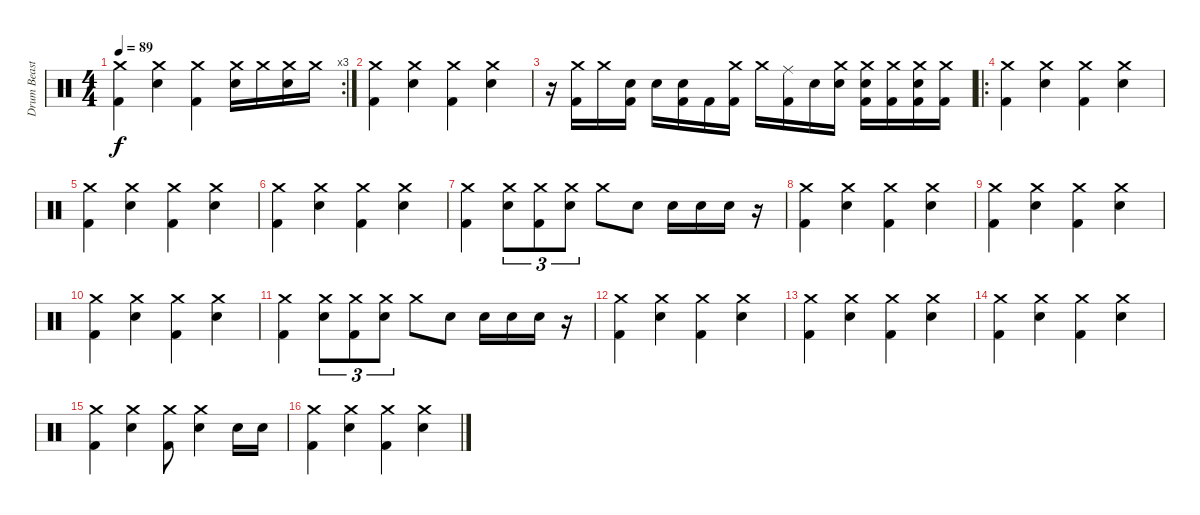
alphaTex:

\track ("Drum Beast Lars" "Drum Beast") {instrument percussion}
\staff {score}
\articulation defaults
\rc 3
\ts (4 4)
\tempo 89
\clef neutral
\ks c
("Crash medium (hit)" "Kick (hit) 2").4{dy f} ("Crash medium (hit)" "Electric Snare (hit)").4 ("Crash medium (hit)" "Kick (hit) 2").4 ("Crash medium (hit)" "Electric Snare (hit)").16 "Crash medium (hit)".16 ("Crash medium (hit)" "Electric Snare (hit)").16 "Crash medium (hit)".16 |
("Crash medium (hit)" "Kick (hit) 2").4 ("Crash medium (hit)" "Electric Snare (hit)").4 ("Crash medium (hit)" "Kick (hit) 2").4 ("Crash medium (hit)" "Electric Snare (hit)").4 |
r.16 ("Crash medium (hit)" "Kick (hit) 2").16 "Crash medium (hit)".16 ("Electric Snare (hit)" "Kick (hit) 2").16 "Electric Snare (hit)".16 ("Electric Snare (hit)" "Kick (hit) 2").16 "Kick (hit) 2".16 ("Crash medium (hit)" "Kick (hit) 2").16 "Crash medium (hit)".16 ("Ride (middle)" "Kick (hit) 2").16 "Electric Snare (hit)".16 ("Electric Snare (hit)" "Crash medium (hit)").16 ("Electric Snare (hit)" "Crash medium (hit)" "Kick (hit) 2").16 ("Crash medium (hit)" "Kick (hit) 2").16 ("Electric Snare (hit)" "Crash medium (hit)" "Kick (hit) 2").16 ("Crash medium (hit)" "Kick (hit) 2").16 |
\ro
("Crash medium (hit)" "Kick (hit) 2").4 ("Crash medium (hit)" "Electric Snare (hit)").4 ("Crash medium (hit)" "Kick (hit) 2").4 ("Crash medium (hit)" "Electric Snare (hit)").4 |
("Crash medium (hit)" "Kick (hit) 2").4 ("Crash medium (hit)" "Electric Snare (hit)").4 ("Crash medium (hit)" "Kick (hit) 2").4 ("Crash medium (hit)" "Electric Snare (hit)").4 |
("Crash medium (hit)" "Kick (hit) 2").4 ("Crash medium (hit)" "Electric Snare (hit)").4 ("Crash medium (hit)" "Kick (hit) 2").4 ("Crash medium (hit)" "Electric Snare (hit)").4 |
("Crash medium (hit)" "Kick (hit) 2").4 ("Crash medium (hit)" "Electric Snare (hit)").8{tu (3 2)} ("Crash medium (hit)" "Kick (hit) 2").8{tu (3 2)} ("Crash medium (hit)" "Electric Snare (hit)").8{tu (3 2)} "Crash medium (hit)".8 "Electric Snare (hit)".8 "Electric Snare (hit)".16 "Electric Snare (hit)".16 "Electric Snare (hit)".16 r.16 |
("Crash medium (hit)" "Kick (hit) 2").4 ("Crash medium (hit)" "Electric Snare (hit)").4 ("Crash medium (hit)" "Kick (hit) 2").4 ("Crash medium (hit)" "Electric Snare (hit)").4 |
("Crash medium (hit)" "Kick (hit) 2").4 ("Crash medium (hit)" "Electric Snare (hit)").4 ("Crash medium (hit)" "Kick (hit) 2").4 ("Crash medium (hit)" "Electric Snare (hit)").4 |
("Crash medium (hit)" "Kick (hit) 2").4 ("Crash medium (hit)" "Electric Snare (hit)").4 ("Crash medium (hit)" "Kick (hit) 2").4 ("Crash medium (hit)" "Electric Snare (hit)").4 |
("Crash medium (hit)" "Kick (hit) 2").4 ("Crash medium (hit)" "Electric Snare (hit)").8{tu (3 2)} ("Crash medium (hit)" "Kick (hit) 2").8{tu (3 2)} ("Crash medium (hit)" "Electric Snare (hit)").8{tu (3 2)} "Crash medium (hit)".8 "Electric Snare (hit)".8 "Electric Snare (hit)".16 "Electric Snare (hit)".16 "Electric Snare (hit)".16 r.16 |
("Crash medium (hit)" "Kick (hit) 2").4 ("Crash medium (hit)" "Electric Snare (hit)").4 ("Crash medium (hit)" "Kick (hit) 2").4 ("Crash medium (hit)" "Electric Snare (hit)").4 |
("Crash medium (hit)" "Kick (hit) 2").4 ("Crash medium (hit)" "Electric Snare (hit)").4 ("Crash medium (hit)" "Kick (hit) 2").4 ("Crash medium (hit)" "Electric Snare (hit)").4 |
("Crash medium (hit)" "Kick (hit) 2").4 ("Crash medium (hit)" "Electric Snare (hit)").4 ("Crash medium (hit)" "Kick (hit) 2").4 ("Crash medium (hit)" "Electric Snare (hit)").4 |
("Crash medium (hit)" "Kick (hit) 2").4 ("Crash medium (hit)" "Electric Snare (hit)").4 ("Crash medium (hit)" "Kick (hit) 2").8 ("Crash medium (hit)" "Electric Snare (hit)").4 "Electric Snare (hit)".16 "Electric Snare (hit)".16 |
("Crash medium (hit)" "Kick (hit) 2").4 ("Crash medium (hit)" "Electric Snare (hit)").4 ("Crash medium (hit)" "Kick (hit) 2").4 ("Crash medium (hit)" "Electric Snare (hit)").4
